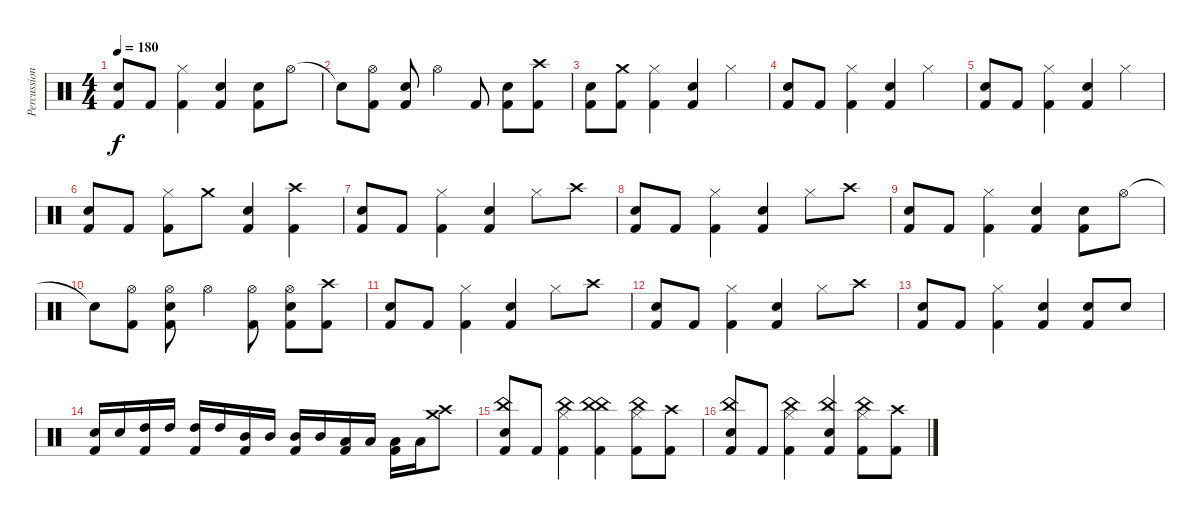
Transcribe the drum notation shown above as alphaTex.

\track ("Percussion" "Percussion") {instrument percussion}
\staff {score}
\articulation defaults
\ts (4 4)
\tempo 180
\clef neutral
\ks c
("Snare (hit) 2" "Kick (hit) 2").8{dy f} "Kick (hit) 2".8 ("Hi-Hat (closed)" "Kick (hit) 2").4 ("Snare (hit) 2" "Kick (hit) 2").4 ("Snare (hit) 2" "Kick (hit) 2").8 "Hi-Hat (open)".8 |
"Snare (hit)"{t}.8 ("Hi-Hat (open)" "Kick (hit) 2").8 ("Snare (hit) 2" "Kick (hit) 2").8 "Hi-Hat (open)".4 "Kick (hit) 2".8 ("Snare (hit) 2" "Kick (hit) 2").8 ("Crash high (hit)" "Kick (hit) 2").8 |
("Snare (hit) 2" "Kick (hit) 2").8 ("Crash medium (hit)" "Kick (hit) 2").8 ("Hi-Hat (closed)" "Kick (hit) 2").4 ("Snare (hit) 2" "Kick (hit) 2").4 "Hi-Hat (closed)".4 |
("Snare (hit) 2" "Kick (hit) 2").8 "Kick (hit) 2".8 ("Hi-Hat (closed)" "Kick (hit) 2").4 ("Snare (hit) 2" "Kick (hit) 2").4 "Hi-Hat (closed)".4 |
("Snare (hit) 2" "Kick (hit) 2").8 "Kick (hit) 2".8 ("Hi-Hat (closed)" "Kick (hit) 2").4 ("Snare (hit) 2" "Kick (hit) 2").4 "Hi-Hat (closed)".4 |
("Snare (hit) 2" "Kick (hit) 2").8 "Kick (hit) 2".8 ("Hi-Hat (closed)" "Kick (hit) 2").8 "Crash medium (hit)".8 ("Snare (hit) 2" "Kick (hit) 2").4 ("Crash high (hit)" "Kick (hit) 2").4 |
("Snare (hit) 2" "Kick (hit) 2").8 "Kick (hit) 2".8 ("Hi-Hat (closed)" "Kick (hit) 2").4 ("Snare (hit) 2" "Kick (hit) 2").4 "Hi-Hat (closed)".8 "Crash high (hit)".8 |
("Snare (hit) 2" "Kick (hit) 2").8 "Kick (hit) 2".8 ("Hi-Hat (closed)" "Kick (hit) 2").4 ("Snare (hit) 2" "Kick (hit) 2").4 "Hi-Hat (closed)".8 "Crash high (hit)".8 |
("Snare (hit) 2" "Kick (hit) 2").8 "Kick (hit) 2".8 ("Hi-Hat (closed)" "Kick (hit) 2").4 ("Snare (hit) 2" "Kick (hit) 2").4 ("Snare (hit) 2" "Kick (hit) 2").8 "Hi-Hat (open)".8 |
"Snare (hit)"{t}.8 ("Hi-Hat (open)" "Kick (hit) 2").8 ("Hi-Hat (open)" "Snare (hit) 2" "Kick (hit) 2").8 "Hi-Hat (open)".4 ("Hi-Hat (open)" "Kick (hit) 2").8 ("Hi-Hat (open)" "Snare (hit) 2" "Kick (hit) 2").8 ("Crash high (hit)" "Kick (hit) 2").8 |
("Snare (hit) 2" "Kick (hit) 2").8 "Kick (hit) 2".8 ("Hi-Hat (closed)" "Kick (hit) 2").4 ("Snare (hit) 2" "Kick (hit) 2").4 "Hi-Hat (closed)".8 "Crash high (hit)".8 |
("Snare (hit) 2" "Kick (hit) 2").8 "Kick (hit) 2".8 ("Hi-Hat (closed)" "Kick (hit) 2").4 ("Snare (hit) 2" "Kick (hit) 2").4 "Hi-Hat (closed)".8 "Crash high (hit)".8 |
("Snare (hit) 2" "Kick (hit) 2").8 "Kick (hit) 2".8 ("Hi-Hat (closed)" "Kick (hit) 2").4 ("Snare (hit) 2" "Kick (hit) 2").4 ("Snare (hit) 2" "Kick (hit) 2").8 "Snare (hit) 2".8 |
("Snare (hit) 2" "Kick (hit) 2").16 "Snare (hit) 2".16 ("High Tom (hit)" "Kick (hit) 2").16 "High Tom (hit)".16 ("High Tom (hit)" "Kick (hit) 2").16 "High Tom (hit)".16 ("Mid Tom (hit)" "Kick (hit) 2").16 "Mid Tom (hit)".16 ("Mid Tom (hit)" "Kick (hit) 2").16 "Mid Tom (hit)".16 ("Low Tom (hit)" "Kick (hit) 2").16 "Low Tom (hit)".16 ("Low Tom (hit)" "Kick (hit) 2").16 "Low Tom (hit)".16 ("Crash high (hit)" "Crash medium (hit)").8 |
("China (hit)" "Electric Snare (hit)" "Kick (hit) 2").8 "Kick (hit) 2".8 ("China (hit)" "Hi-Hat (closed)" "Kick (hit) 2").4 ("China (hit)" "China (hit)" "Kick (hit) 2").4 ("China (hit)" "Hi-Hat (closed)" "Kick (hit) 2").8 ("Crash high (hit)" "Kick (hit) 2").8 |
("China (hit)" "Electric Snare (hit)" "Kick (hit) 2").8 "Kick (hit) 2".8 ("China (hit)" "Hi-Hat (closed)" "Kick (hit) 2").4 ("China (hit)" "Electric Snare (hit)" "Kick (hit) 2").4 ("China (hit)" "Hi-Hat (closed)" "Kick (hit) 2").8 ("Crash high (hit)" "Kick (hit) 2").8
